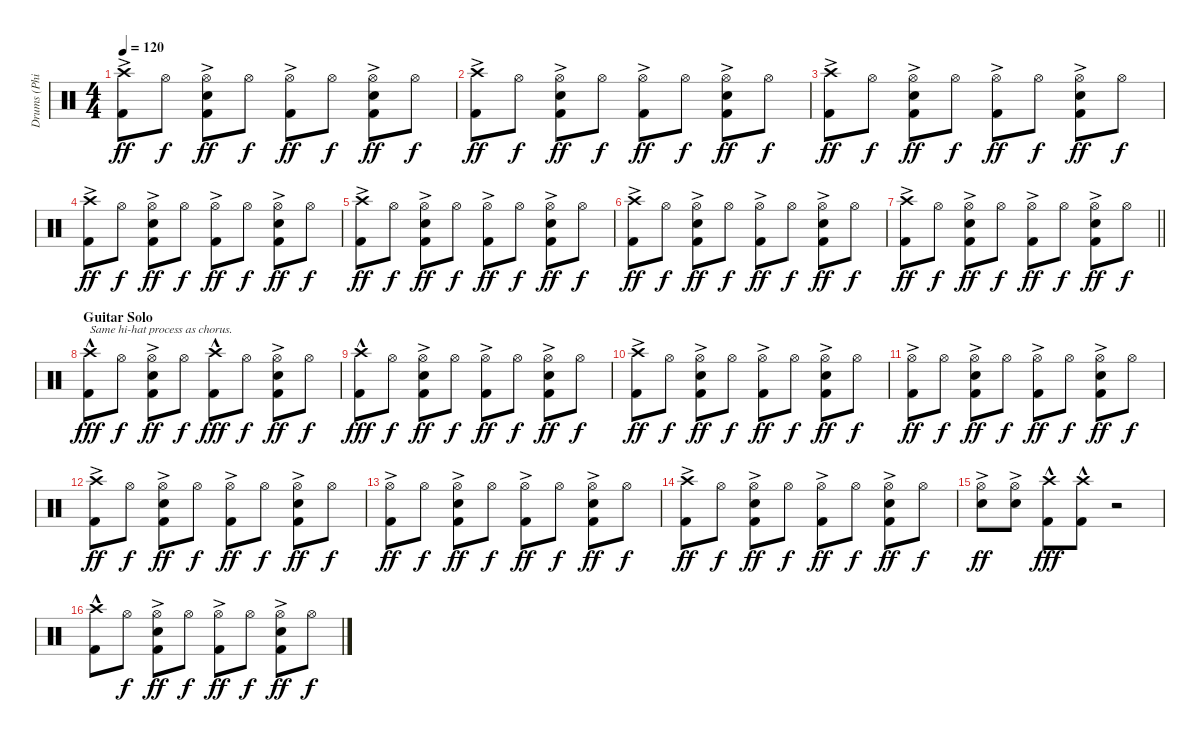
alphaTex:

\track ("Drums (Phil Rudd)" "Drums (Phi") {instrument percussion}
\staff {score}
\articulation defaults
\ts (4 4)
\tempo 120
\clef neutral
\ks c
("Crash high (hit)"{ac} "Kick (hit) 2").8{dy ff} "Hi-Hat (open)".8{dy f} ("Snare (hit) 2" "Hi-Hat (open)"{ac} "Kick (hit) 2").8{dy ff} "Hi-Hat (open)".8{dy f} ("Hi-Hat (open)"{ac} "Kick (hit) 2").8{dy ff} "Hi-Hat (open)".8{dy f} ("Hi-Hat (open)"{ac} "Snare (hit) 2" "Kick (hit) 2").8{dy ff} "Hi-Hat (open)".8{dy f} |
("Crash high (hit)"{ac} "Kick (hit) 2").8{dy ff} "Hi-Hat (open)".8{dy f} ("Snare (hit) 2" "Hi-Hat (open)"{ac} "Kick (hit) 2").8{dy ff} "Hi-Hat (open)".8{dy f} ("Hi-Hat (open)"{ac} "Kick (hit) 2").8{dy ff} "Hi-Hat (open)".8{dy f} ("Hi-Hat (open)"{ac} "Snare (hit) 2" "Kick (hit) 2").8{dy ff} "Hi-Hat (open)".8{dy f} |
("Crash high (hit)"{ac} "Kick (hit) 2").8{dy ff} "Hi-Hat (open)".8{dy f} ("Snare (hit) 2" "Hi-Hat (open)"{ac} "Kick (hit) 2").8{dy ff} "Hi-Hat (open)".8{dy f} ("Hi-Hat (open)"{ac} "Kick (hit) 2").8{dy ff} "Hi-Hat (open)".8{dy f} ("Hi-Hat (open)"{ac} "Snare (hit) 2" "Kick (hit) 2").8{dy ff} "Hi-Hat (open)".8{dy f} |
("Crash high (hit)"{ac} "Kick (hit) 2").8{dy ff} "Hi-Hat (open)".8{dy f} ("Snare (hit) 2" "Hi-Hat (open)"{ac} "Kick (hit) 2").8{dy ff} "Hi-Hat (open)".8{dy f} ("Hi-Hat (open)"{ac} "Kick (hit) 2").8{dy ff} "Hi-Hat (open)".8{dy f} ("Hi-Hat (open)"{ac} "Snare (hit) 2" "Kick (hit) 2").8{dy ff} "Hi-Hat (open)".8{dy f} |
("Crash high (hit)"{ac} "Kick (hit) 2").8{dy ff} "Hi-Hat (open)".8{dy f} ("Snare (hit) 2" "Hi-Hat (open)"{ac} "Kick (hit) 2").8{dy ff} "Hi-Hat (open)".8{dy f} ("Hi-Hat (open)"{ac} "Kick (hit) 2").8{dy ff} "Hi-Hat (open)".8{dy f} ("Hi-Hat (open)"{ac} "Snare (hit) 2" "Kick (hit) 2").8{dy ff} "Hi-Hat (open)".8{dy f} |
("Crash high (hit)"{ac} "Kick (hit) 2").8{dy ff} "Hi-Hat (open)".8{dy f} ("Snare (hit) 2" "Hi-Hat (open)"{ac} "Kick (hit) 2").8{dy ff} "Hi-Hat (open)".8{dy f} ("Hi-Hat (open)"{ac} "Kick (hit) 2").8{dy ff} "Hi-Hat (open)".8{dy f} ("Hi-Hat (open)"{ac} "Snare (hit) 2" "Kick (hit) 2").8{dy ff} "Hi-Hat (open)".8{dy f} |
\barLineRight lightlight
("Crash high (hit)"{ac} "Kick (hit) 2").8{dy ff} "Hi-Hat (open)".8{dy f} ("Snare (hit) 2" "Hi-Hat (open)"{ac} "Kick (hit) 2").8{dy ff} "Hi-Hat (open)".8{dy f} ("Hi-Hat (open)"{ac} "Kick (hit) 2").8{dy ff} "Hi-Hat (open)".8{dy f} ("Hi-Hat (open)"{ac} "Snare (hit) 2" "Kick (hit) 2").8{dy ff} "Hi-Hat (open)".8{dy f} |
\section ("" "Guitar Solo")
("Crash high (hit)"{hac} "Kick (hit) 2").8{txt "Same hi-hat process as chorus." dy fff} "Hi-Hat (open)".8{dy f} ("Snare (hit) 2" "Hi-Hat (open)"{ac} "Kick (hit) 2").8{dy ff} "Hi-Hat (open)".8{dy f} ("Crash high (hit)"{hac} "Kick (hit) 2").8{dy fff} "Hi-Hat (open)".8{dy f} ("Hi-Hat (open)"{ac} "Snare (hit) 2" "Kick (hit) 2").8{dy ff} "Hi-Hat (open)".8{dy f} |
("Crash high (hit)"{hac} "Kick (hit) 2").8{dy fff} "Hi-Hat (open)".8{dy f} ("Snare (hit) 2"{ac} "Hi-Hat (open)" "Kick (hit) 2").8{dy ff} "Hi-Hat (open)".8{dy f} ("Hi-Hat (open)"{ac} "Kick (hit) 2").8{dy ff} "Hi-Hat (open)".8{dy f} ("Hi-Hat (open)"{ac} "Snare (hit) 2" "Kick (hit) 2").8{dy ff} "Hi-Hat (open)".8{dy f} |
("Crash high (hit)"{ac} "Kick (hit) 2").8{dy ff} "Hi-Hat (open)".8{dy f} ("Snare (hit) 2" "Hi-Hat (open)"{ac} "Kick (hit) 2").8{dy ff} "Hi-Hat (open)".8{dy f} ("Hi-Hat (open)"{ac} "Kick (hit) 2").8{dy ff} "Hi-Hat (open)".8{dy f} ("Hi-Hat (open)"{ac} "Snare (hit) 2" "Kick (hit) 2").8{dy ff} "Hi-Hat (open)".8{dy f} |
("Hi-Hat (open)"{ac} "Kick (hit) 2").8{dy ff} "Hi-Hat (open)".8{dy f} ("Snare (hit) 2" "Hi-Hat (open)"{ac} "Kick (hit) 2").8{dy ff} "Hi-Hat (open)".8{dy f} ("Hi-Hat (open)"{ac} "Kick (hit) 2").8{dy ff} "Hi-Hat (open)".8{dy f} ("Hi-Hat (open)"{ac} "Snare (hit) 2" "Kick (hit) 2").8{dy ff} "Hi-Hat (open)".8{dy f} |
("Crash high (hit)"{ac} "Kick (hit) 2").8{dy ff} "Hi-Hat (open)".8{dy f} ("Snare (hit) 2" "Hi-Hat (open)"{ac} "Kick (hit) 2").8{dy ff} "Hi-Hat (open)".8{dy f} ("Hi-Hat (open)"{ac} "Kick (hit) 2").8{dy ff} "Hi-Hat (open)".8{dy f} ("Hi-Hat (open)"{ac} "Snare (hit) 2" "Kick (hit) 2").8{dy ff} "Hi-Hat (open)".8{dy f} |
("Hi-Hat (open)"{ac} "Kick (hit) 2").8{dy ff} "Hi-Hat (open)".8{dy f} ("Snare (hit) 2" "Hi-Hat (open)"{ac} "Kick (hit) 2").8{dy ff} "Hi-Hat (open)".8{dy f} ("Hi-Hat (open)"{ac} "Kick (hit) 2").8{dy ff} "Hi-Hat (open)".8{dy f} ("Hi-Hat (open)"{ac} "Snare (hit) 2" "Kick (hit) 2").8{dy ff} "Hi-Hat (open)".8{dy f} |
("Crash high (hit)"{ac} "Kick (hit) 2").8{dy ff} "Hi-Hat (open)".8{dy f} ("Snare (hit) 2" "Hi-Hat (open)"{ac} "Kick (hit) 2").8{dy ff} "Hi-Hat (open)".8{dy f} ("Hi-Hat (open)"{ac} "Kick (hit) 2").8{dy ff} "Hi-Hat (open)".8{dy f} ("Hi-Hat (open)"{ac} "Snare (hit) 2" "Kick (hit) 2").8{dy ff} "Hi-Hat (open)".8{dy f} |
("Snare (hit) 2" "Hi-Hat (open)"{ac}).8{dy ff} ("Snare (hit) 2" "Hi-Hat (open)"{ac}).8 ("Crash high (hit)"{hac} "Kick (hit) 2").8{dy fff} ("Crash high (hit)"{hac} "Kick (hit) 2").8 r.2 |
("Crash high (hit)"{hac} "Kick (hit) 2").8 "Hi-Hat (open)".8{dy f} ("Snare (hit) 2"{ac} "Hi-Hat (open)" "Kick (hit) 2").8{dy ff} "Hi-Hat (open)".8{dy f} ("Hi-Hat (open)"{ac} "Kick (hit) 2").8{dy ff} "Hi-Hat (open)".8{dy f} ("Hi-Hat (open)"{ac} "Snare (hit) 2" "Kick (hit) 2").8{dy ff} "Hi-Hat (open)".8{dy f}
